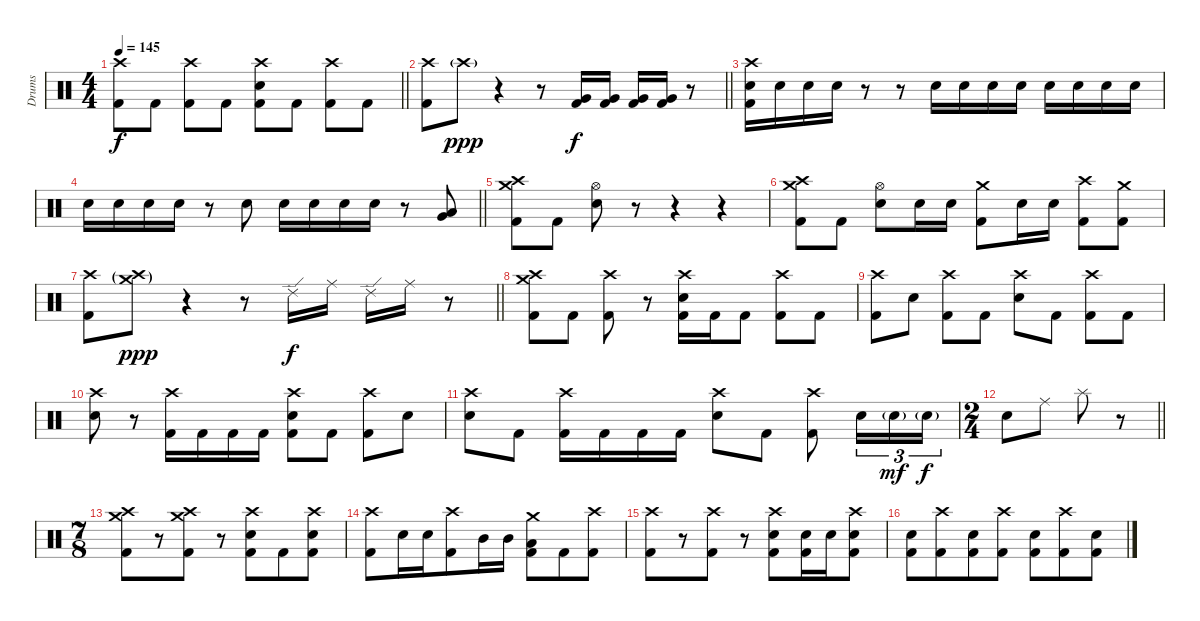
\track ("Drums" "Drums") {instrument percussion}
\staff {score}
\articulation defaults
\ts (4 4)
\tempo 145
\clef neutral
\barLineRight lightlight
\ks c
("Crash high (hit)" "Kick (hit) 2").8{dy f} "Kick (hit) 2".8 ("Crash high (hit)" "Kick (hit) 2").8 "Kick (hit) 2".8 ("Crash high (hit)" "Electric Snare (hit)" "Kick (hit) 2").8 "Kick (hit) 2".8 ("Crash high (hit)" "Kick (hit) 2").8 "Kick (hit) 2".8 |
\barLineRight lightlight
("Crash high (hit)" "Kick (hit) 2").8 "Crash high (hit)"{g}.8{dy ppp} r.4 r.8 ("Very Low Tom (hit)" "Kick (hit) 2").16{dy f} ("Very Low Tom (hit)" "Kick (hit) 2").16 ("Very Low Tom (hit)" "Kick (hit) 2").16 ("Very Low Tom (hit)" "Kick (hit) 2").16 r.8 |
("Crash high (hit)" "Electric Snare (hit)" "Kick (hit) 2").16 "Electric Snare (hit)".16 "Electric Snare (hit)".16 "Electric Snare (hit)".16 r.8 r.8 "Electric Snare (hit)".16 "Electric Snare (hit)".16 "Electric Snare (hit)".16 "Electric Snare (hit)".16 "Electric Snare (hit)".16 "Electric Snare (hit)".16 "Electric Snare (hit)".16 "Electric Snare (hit)".16 |
\barLineRight lightlight "Electric Snare (hit)".16 "Electric Snare (hit)".16 "Electric Snare (hit)".16 "Electric Snare (hit)".16
r.8 "Electric Snare (hit)".8 "Electric Snare (hit)".16 "Electric Snare (hit)".16 "Electric Snare (hit)".16 "Electric Snare (hit)".16 r.8 ("Low Tom (hit)" "Very Low Tom (hit)").8 |
("Crash high (hit)" "Crash medium (hit)" "Kick (hit) 2").8 "Kick (hit) 2".8 ("Hi-Hat (open)" "Electric Snare (hit)").8 r.8 r.4 r.4 |
("Crash high (hit)" "Crash medium (hit)" "Kick (hit) 2").8 "Kick (hit) 2".8 ("Hi-Hat (open)" "Electric Snare (hit)").8 "Electric Snare (hit)".16 "Electric Snare (hit)".16 ("Crash medium (hit)" "Kick (hit) 2").8 "Electric Snare (hit)".16 "Electric Snare (hit)".16 ("Crash high (hit)" "Kick (hit) 2").8 ("Crash medium (hit)" "Kick (hit) 2").8 |
\barLineRight lightlight
("Crash high (hit)" "Kick (hit) 2").8 ("Crash high (hit)"{g} "Crash medium (hit)"{g}).8{dy ppp} r.4 r.8 "Ride (edge) 2".16{dy f} "Ride (middle)".16 "Ride (edge) 2".16 "Ride (middle)".16 r.8 |
("Crash high (hit)" "Crash medium (hit)" "Kick (hit) 2").8 "Kick (hit) 2".8 ("Crash high (hit)" "Kick (hit) 2").8 r.8 ("Crash high (hit)" "Electric Snare (hit)" "Kick (hit) 2").16 "Kick (hit) 2".16 "Kick (hit) 2".8 ("Crash high (hit)" "Kick (hit) 2").8 "Kick (hit) 2".8 |
("Crash high (hit)" "Kick (hit) 2").8 "Electric Snare (hit)".8 ("Crash high (hit)" "Kick (hit) 2").8 "Kick (hit) 2".8 ("Crash high (hit)" "Electric Snare (hit)").8 "Kick (hit) 2".8 ("Crash high (hit)" "Kick (hit) 2").8 "Kick (hit) 2".8 |
("Crash high (hit)" "Electric Snare (hit)").8 r.8 ("Crash high (hit)" "Kick (hit) 2").16 "Kick (hit) 2".16 "Kick (hit) 2".16 "Kick (hit) 2".16 ("Crash high (hit)" "Electric Snare (hit)" "Kick (hit) 2").8 "Kick (hit) 2".8 ("Crash high (hit)" "Kick (hit) 2").8 "Electric Snare (hit)".8 |
("Crash high (hit)" "Electric Snare (hit)").8 "Kick (hit) 2".8 ("Crash high (hit)" "Kick (hit) 2").16 "Kick (hit) 2".16 "Kick (hit) 2".16 "Kick (hit) 2".16 ("Crash high (hit)" "Electric Snare (hit)").8 "Kick (hit) 2".8 ("Crash high (hit)" "Kick (hit) 2").8 "Electric Snare (hit)".16{tu (3 2)} "Electric Snare (hit)"{g}.16{tu (3 2) dy mf} "Electric Snare (hit)"{g}.16{tu (3 2) dy f} |
\ts (2 4)
\barLineRight lightlight "Electric Snare (hit)".8 "Ride (middle)".8 "Splash (hit)".8
r.8 |
\ts (7 8)
("Crash high (hit)" "Crash medium (hit)" "Kick (hit) 2").8 r.8 ("Crash high (hit)" "Crash medium (hit)" "Kick (hit) 2").8 r.8 ("Crash high (hit)" "Electric Snare (hit)" "Kick (hit) 2").8 "Kick (hit) 2".8 ("Crash high (hit)" "Electric Snare (hit)" "Kick (hit) 2").8 |
("Crash high (hit)" "Kick (hit) 2").8 "Electric Snare (hit)".16 "Electric Snare (hit)".16 ("Crash high (hit)" "Kick (hit) 2").8 "Mid Tom (hit)".16 "Mid Tom (hit)".16 ("Crash medium (hit)" "Low Tom (hit)" "Kick (hit) 2").8 "Kick (hit) 2".8 ("Crash high (hit)" "Kick (hit) 2").8 |
("Crash high (hit)" "Kick (hit) 2").8 r.8 ("Crash high (hit)" "Kick (hit) 2").8 r.8 ("Crash high (hit)" "Electric Snare (hit)" "Kick (hit) 2").8 ("Electric Snare (hit)" "Kick (hit) 2").16 "Electric Snare (hit)".16 ("Crash high (hit)" "Electric Snare (hit)" "Kick (hit) 2").8 |
("Electric Snare (hit)" "Kick (hit) 2").8 ("Crash high (hit)" "Kick (hit) 2").8 ("Electric Snare (hit)" "Kick (hit) 2").8 ("Crash high (hit)" "Kick (hit) 2").8 ("Electric Snare (hit)" "Kick (hit) 2").8 ("Crash high (hit)" "Kick (hit) 2").8 ("Electric Snare (hit)" "Kick (hit) 2").8
